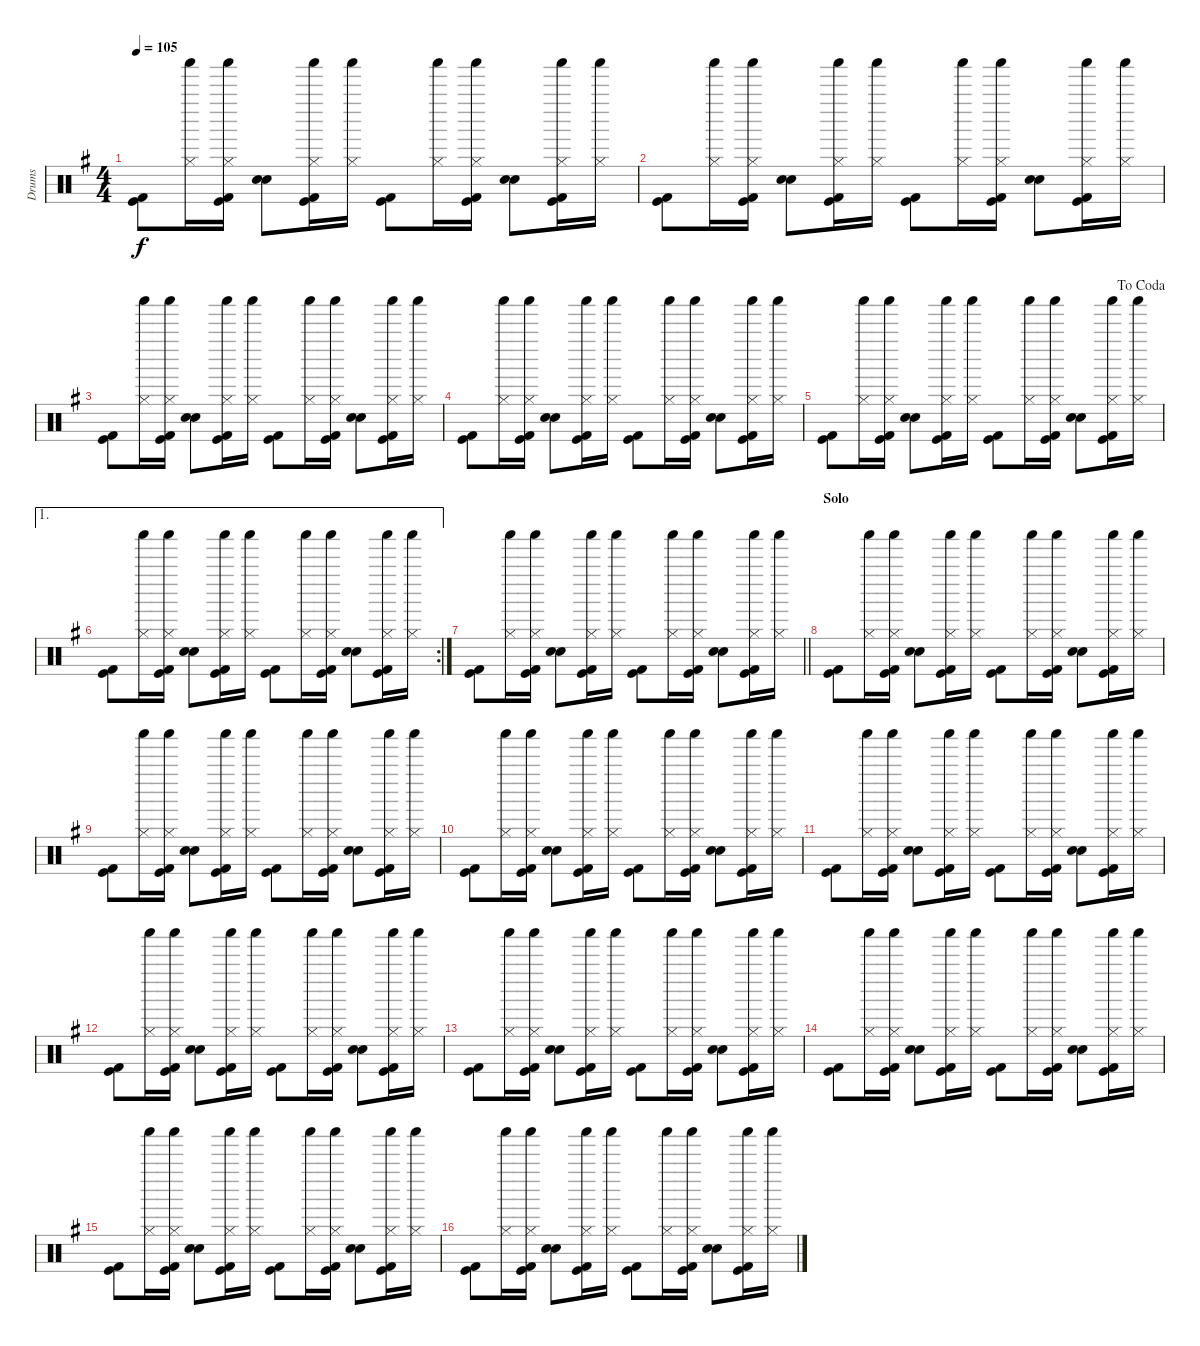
\track ("Drums" "Drums") {instrument percussion}
\staff {score}
\articulation defaults
\ts (4 4)
\tempo 105
\clef neutral
\ks g
("Kick (hit)" "Kick (hit) 2").8{dy f} ("Shaker (hit)" "Hi-Hat (closed)").16 ("Shaker (hit)" "Hi-Hat (closed)" "Kick (hit)" "Kick (hit) 2").16 ("Electric Snare (hit)" "Snare (hit) 2").8 ("Shaker (hit)" "Hi-Hat (closed)" "Kick (hit)" "Kick (hit) 2").16 ("Shaker (hit)" "Hi-Hat (closed)").16 ("Kick (hit)" "Kick (hit) 2").8 ("Shaker (hit)" "Hi-Hat (closed)").16 ("Shaker (hit)" "Hi-Hat (closed)" "Kick (hit)" "Kick (hit) 2").16 ("Electric Snare (hit)" "Snare (hit) 2").8 ("Shaker (hit)" "Hi-Hat (closed)" "Kick (hit)" "Kick (hit) 2").16 ("Shaker (hit)" "Hi-Hat (closed)").16 |
("Kick (hit)" "Kick (hit) 2").8 ("Shaker (hit)" "Hi-Hat (closed)").16 ("Shaker (hit)" "Hi-Hat (closed)" "Kick (hit)" "Kick (hit) 2").16 ("Electric Snare (hit)" "Snare (hit) 2").8 ("Shaker (hit)" "Hi-Hat (closed)" "Kick (hit)" "Kick (hit) 2").16 ("Shaker (hit)" "Hi-Hat (closed)").16 ("Kick (hit)" "Kick (hit) 2").8 ("Shaker (hit)" "Hi-Hat (closed)").16 ("Shaker (hit)" "Hi-Hat (closed)" "Kick (hit)" "Kick (hit) 2").16 ("Electric Snare (hit)" "Snare (hit) 2").8 ("Shaker (hit)" "Hi-Hat (closed)" "Kick (hit)" "Kick (hit) 2").16 ("Shaker (hit)" "Hi-Hat (closed)").16 |
("Kick (hit)" "Kick (hit) 2").8 ("Shaker (hit)" "Hi-Hat (closed)").16 ("Shaker (hit)" "Hi-Hat (closed)" "Kick (hit)" "Kick (hit) 2").16 ("Electric Snare (hit)" "Snare (hit) 2").8 ("Shaker (hit)" "Hi-Hat (closed)" "Kick (hit)" "Kick (hit) 2").16 ("Shaker (hit)" "Hi-Hat (closed)").16 ("Kick (hit)" "Kick (hit) 2").8 ("Shaker (hit)" "Hi-Hat (closed)").16 ("Shaker (hit)" "Hi-Hat (closed)" "Kick (hit)" "Kick (hit) 2").16 ("Electric Snare (hit)" "Snare (hit) 2").8 ("Shaker (hit)" "Hi-Hat (closed)" "Kick (hit)" "Kick (hit) 2").16 ("Shaker (hit)" "Hi-Hat (closed)").16 |
("Kick (hit)" "Kick (hit) 2").8 ("Shaker (hit)" "Hi-Hat (closed)").16 ("Shaker (hit)" "Hi-Hat (closed)" "Kick (hit)" "Kick (hit) 2").16 ("Electric Snare (hit)" "Snare (hit) 2").8 ("Shaker (hit)" "Hi-Hat (closed)" "Kick (hit)" "Kick (hit) 2").16 ("Shaker (hit)" "Hi-Hat (closed)").16 ("Kick (hit)" "Kick (hit) 2").8 ("Shaker (hit)" "Hi-Hat (closed)").16 ("Shaker (hit)" "Hi-Hat (closed)" "Kick (hit)" "Kick (hit) 2").16 ("Electric Snare (hit)" "Snare (hit) 2").8 ("Shaker (hit)" "Hi-Hat (closed)" "Kick (hit)" "Kick (hit) 2").16 ("Shaker (hit)" "Hi-Hat (closed)").16 |
\jump dacoda
("Kick (hit)" "Kick (hit) 2").8 ("Shaker (hit)" "Hi-Hat (closed)").16 ("Shaker (hit)" "Hi-Hat (closed)" "Kick (hit)" "Kick (hit) 2").16 ("Electric Snare (hit)" "Snare (hit) 2").8 ("Shaker (hit)" "Hi-Hat (closed)" "Kick (hit)" "Kick (hit) 2").16 ("Shaker (hit)" "Hi-Hat (closed)").16 ("Kick (hit)" "Kick (hit) 2").8 ("Shaker (hit)" "Hi-Hat (closed)").16 ("Shaker (hit)" "Hi-Hat (closed)" "Kick (hit)" "Kick (hit) 2").16 ("Electric Snare (hit)" "Snare (hit) 2").8 ("Shaker (hit)" "Hi-Hat (closed)" "Kick (hit)" "Kick (hit) 2").16 ("Shaker (hit)" "Hi-Hat (closed)").16 |
\ae 1
\rc 2
("Kick (hit)" "Kick (hit) 2").8 ("Shaker (hit)" "Hi-Hat (closed)").16 ("Shaker (hit)" "Hi-Hat (closed)" "Kick (hit)" "Kick (hit) 2").16 ("Electric Snare (hit)" "Snare (hit) 2").8 ("Shaker (hit)" "Hi-Hat (closed)" "Kick (hit)" "Kick (hit) 2").16 ("Shaker (hit)" "Hi-Hat (closed)").16 ("Kick (hit)" "Kick (hit) 2").8 ("Shaker (hit)" "Hi-Hat (closed)").16 ("Shaker (hit)" "Hi-Hat (closed)" "Kick (hit)" "Kick (hit) 2").16 ("Electric Snare (hit)" "Snare (hit) 2").8 ("Shaker (hit)" "Hi-Hat (closed)" "Kick (hit)" "Kick (hit) 2").16 ("Shaker (hit)" "Hi-Hat (closed)").16 |
\barLineRight lightlight
("Kick (hit)" "Kick (hit) 2").8 ("Shaker (hit)" "Hi-Hat (closed)").16 ("Shaker (hit)" "Hi-Hat (closed)" "Kick (hit)" "Kick (hit) 2").16 ("Electric Snare (hit)" "Snare (hit) 2").8 ("Shaker (hit)" "Hi-Hat (closed)" "Kick (hit)" "Kick (hit) 2").16 ("Shaker (hit)" "Hi-Hat (closed)").16 ("Kick (hit)" "Kick (hit) 2").8 ("Shaker (hit)" "Hi-Hat (closed)").16 ("Shaker (hit)" "Hi-Hat (closed)" "Kick (hit)" "Kick (hit) 2").16 ("Electric Snare (hit)" "Snare (hit) 2").8 ("Shaker (hit)" "Hi-Hat (closed)" "Kick (hit)" "Kick (hit) 2").16 ("Shaker (hit)" "Hi-Hat (closed)").16 |
\section ("" "Solo")
("Kick (hit)" "Kick (hit) 2").8 ("Shaker (hit)" "Hi-Hat (closed)").16 ("Shaker (hit)" "Hi-Hat (closed)" "Kick (hit)" "Kick (hit) 2").16 ("Electric Snare (hit)" "Snare (hit) 2").8 ("Shaker (hit)" "Hi-Hat (closed)" "Kick (hit)" "Kick (hit) 2").16 ("Shaker (hit)" "Hi-Hat (closed)").16 ("Kick (hit)" "Kick (hit) 2").8 ("Shaker (hit)" "Hi-Hat (closed)").16 ("Shaker (hit)" "Hi-Hat (closed)" "Kick (hit)" "Kick (hit) 2").16 ("Electric Snare (hit)" "Snare (hit) 2").8 ("Shaker (hit)" "Hi-Hat (closed)" "Kick (hit)" "Kick (hit) 2").16 ("Shaker (hit)" "Hi-Hat (closed)").16 |
("Kick (hit)" "Kick (hit) 2").8 ("Shaker (hit)" "Hi-Hat (closed)").16 ("Shaker (hit)" "Hi-Hat (closed)" "Kick (hit)" "Kick (hit) 2").16 ("Electric Snare (hit)" "Snare (hit) 2").8 ("Shaker (hit)" "Hi-Hat (closed)" "Kick (hit)" "Kick (hit) 2").16 ("Shaker (hit)" "Hi-Hat (closed)").16 ("Kick (hit)" "Kick (hit) 2").8 ("Shaker (hit)" "Hi-Hat (closed)").16 ("Shaker (hit)" "Hi-Hat (closed)" "Kick (hit)" "Kick (hit) 2").16 ("Electric Snare (hit)" "Snare (hit) 2").8 ("Shaker (hit)" "Hi-Hat (closed)" "Kick (hit)" "Kick (hit) 2").16 ("Shaker (hit)" "Hi-Hat (closed)").16 |
("Kick (hit)" "Kick (hit) 2").8 ("Shaker (hit)" "Hi-Hat (closed)").16 ("Shaker (hit)" "Hi-Hat (closed)" "Kick (hit)" "Kick (hit) 2").16 ("Electric Snare (hit)" "Snare (hit) 2").8 ("Shaker (hit)" "Hi-Hat (closed)" "Kick (hit)" "Kick (hit) 2").16 ("Shaker (hit)" "Hi-Hat (closed)").16 ("Kick (hit)" "Kick (hit) 2").8 ("Shaker (hit)" "Hi-Hat (closed)").16 ("Shaker (hit)" "Hi-Hat (closed)" "Kick (hit)" "Kick (hit) 2").16 ("Electric Snare (hit)" "Snare (hit) 2").8 ("Shaker (hit)" "Hi-Hat (closed)" "Kick (hit)" "Kick (hit) 2").16 ("Shaker (hit)" "Hi-Hat (closed)").16 |
("Kick (hit)" "Kick (hit) 2").8 ("Shaker (hit)" "Hi-Hat (closed)").16 ("Shaker (hit)" "Hi-Hat (closed)" "Kick (hit)" "Kick (hit) 2").16 ("Electric Snare (hit)" "Snare (hit) 2").8 ("Shaker (hit)" "Hi-Hat (closed)" "Kick (hit)" "Kick (hit) 2").16 ("Shaker (hit)" "Hi-Hat (closed)").16 ("Kick (hit)" "Kick (hit) 2").8 ("Shaker (hit)" "Hi-Hat (closed)").16 ("Shaker (hit)" "Hi-Hat (closed)" "Kick (hit)" "Kick (hit) 2").16 ("Electric Snare (hit)" "Snare (hit) 2").8 ("Shaker (hit)" "Hi-Hat (closed)" "Kick (hit)" "Kick (hit) 2").16 ("Shaker (hit)" "Hi-Hat (closed)").16 |
("Kick (hit)" "Kick (hit) 2").8 ("Shaker (hit)" "Hi-Hat (closed)").16 ("Shaker (hit)" "Hi-Hat (closed)" "Kick (hit)" "Kick (hit) 2").16 ("Electric Snare (hit)" "Snare (hit) 2").8 ("Shaker (hit)" "Hi-Hat (closed)" "Kick (hit)" "Kick (hit) 2").16 ("Shaker (hit)" "Hi-Hat (closed)").16 ("Kick (hit)" "Kick (hit) 2").8 ("Shaker (hit)" "Hi-Hat (closed)").16 ("Shaker (hit)" "Hi-Hat (closed)" "Kick (hit)" "Kick (hit) 2").16 ("Electric Snare (hit)" "Snare (hit) 2").8 ("Shaker (hit)" "Hi-Hat (closed)" "Kick (hit)" "Kick (hit) 2").16 ("Shaker (hit)" "Hi-Hat (closed)").16 |
("Kick (hit)" "Kick (hit) 2").8 ("Shaker (hit)" "Hi-Hat (closed)").16 ("Shaker (hit)" "Hi-Hat (closed)" "Kick (hit)" "Kick (hit) 2").16 ("Electric Snare (hit)" "Snare (hit) 2").8 ("Shaker (hit)" "Hi-Hat (closed)" "Kick (hit)" "Kick (hit) 2").16 ("Shaker (hit)" "Hi-Hat (closed)").16 ("Kick (hit)" "Kick (hit) 2").8 ("Shaker (hit)" "Hi-Hat (closed)").16 ("Shaker (hit)" "Hi-Hat (closed)" "Kick (hit)" "Kick (hit) 2").16 ("Electric Snare (hit)" "Snare (hit) 2").8 ("Shaker (hit)" "Hi-Hat (closed)" "Kick (hit)" "Kick (hit) 2").16 ("Shaker (hit)" "Hi-Hat (closed)").16 |
("Kick (hit)" "Kick (hit) 2").8 ("Shaker (hit)" "Hi-Hat (closed)").16 ("Shaker (hit)" "Hi-Hat (closed)" "Kick (hit)" "Kick (hit) 2").16 ("Electric Snare (hit)" "Snare (hit) 2").8 ("Shaker (hit)" "Hi-Hat (closed)" "Kick (hit)" "Kick (hit) 2").16 ("Shaker (hit)" "Hi-Hat (closed)").16 ("Kick (hit)" "Kick (hit) 2").8 ("Shaker (hit)" "Hi-Hat (closed)").16 ("Shaker (hit)" "Hi-Hat (closed)" "Kick (hit)" "Kick (hit) 2").16 ("Electric Snare (hit)" "Snare (hit) 2").8 ("Shaker (hit)" "Hi-Hat (closed)" "Kick (hit)" "Kick (hit) 2").16 ("Shaker (hit)" "Hi-Hat (closed)").16 |
("Kick (hit)" "Kick (hit) 2").8 ("Shaker (hit)" "Hi-Hat (closed)").16 ("Shaker (hit)" "Hi-Hat (closed)" "Kick (hit)" "Kick (hit) 2").16 ("Electric Snare (hit)" "Snare (hit) 2").8 ("Shaker (hit)" "Hi-Hat (closed)" "Kick (hit)" "Kick (hit) 2").16 ("Shaker (hit)" "Hi-Hat (closed)").16 ("Kick (hit)" "Kick (hit) 2").8 ("Shaker (hit)" "Hi-Hat (closed)").16 ("Shaker (hit)" "Hi-Hat (closed)" "Kick (hit)" "Kick (hit) 2").16 ("Electric Snare (hit)" "Snare (hit) 2").8 ("Shaker (hit)" "Hi-Hat (closed)" "Kick (hit)" "Kick (hit) 2").16 ("Shaker (hit)" "Hi-Hat (closed)").16 |
("Kick (hit)" "Kick (hit) 2").8 ("Shaker (hit)" "Hi-Hat (closed)").16 ("Shaker (hit)" "Hi-Hat (closed)" "Kick (hit)" "Kick (hit) 2").16 ("Electric Snare (hit)" "Snare (hit) 2").8 ("Shaker (hit)" "Hi-Hat (closed)" "Kick (hit)" "Kick (hit) 2").16 ("Shaker (hit)" "Hi-Hat (closed)").16 ("Kick (hit)" "Kick (hit) 2").8 ("Shaker (hit)" "Hi-Hat (closed)").16 ("Shaker (hit)" "Hi-Hat (closed)" "Kick (hit)" "Kick (hit) 2").16 ("Electric Snare (hit)" "Snare (hit) 2").8 ("Shaker (hit)" "Hi-Hat (closed)" "Kick (hit)" "Kick (hit) 2").16 ("Shaker (hit)" "Hi-Hat (closed)").16
